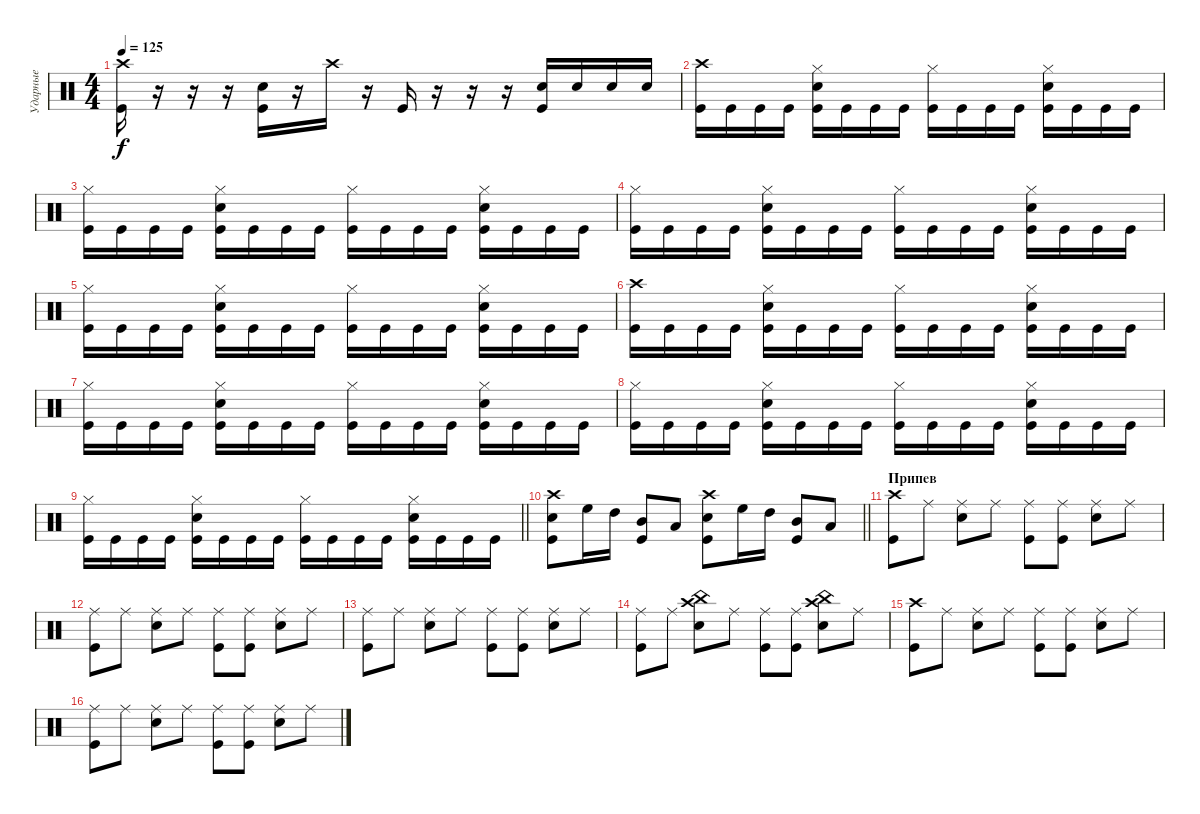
\track ("Ударные" "Ударные") {instrument percussion}
\staff {score}
\articulation defaults
\ts (4 4)
\tempo 125
\clef neutral
\ks c
("Crash high (hit)" "Kick (hit)").16{dy f} r.16 r.16 r.16 ("Snare (hit) 2" "Kick (hit)").16 r.16 "Crash high (hit)".16 r.16 "Kick (hit)".16 r.16 r.16 r.16 ("Snare (hit) 2" "Kick (hit)").16 "Snare (hit) 2".16 "Snare (hit) 2".16 "Snare (hit) 2".16 |
("Crash high (hit)" "Kick (hit)").16 "Kick (hit)".16 "Kick (hit)".16 "Kick (hit)".16 ("Hi-Hat (closed)" "Snare (hit) 2" "Kick (hit)").16 "Kick (hit)".16 "Kick (hit)".16 "Kick (hit)".16 ("Hi-Hat (closed)" "Kick (hit)").16 "Kick (hit)".16 "Kick (hit)".16 "Kick (hit)".16 ("Hi-Hat (closed)" "Snare (hit) 2" "Kick (hit)").16 "Kick (hit)".16 "Kick (hit)".16 "Kick (hit)".16 |
("Hi-Hat (closed)" "Kick (hit)").16 "Kick (hit)".16 "Kick (hit)".16 "Kick (hit)".16 ("Hi-Hat (closed)" "Snare (hit) 2" "Kick (hit)").16 "Kick (hit)".16 "Kick (hit)".16 "Kick (hit)".16 ("Hi-Hat (closed)" "Kick (hit)").16 "Kick (hit)".16 "Kick (hit)".16 "Kick (hit)".16 ("Hi-Hat (closed)" "Snare (hit) 2" "Kick (hit)").16 "Kick (hit)".16 "Kick (hit)".16 "Kick (hit)".16 |
("Hi-Hat (closed)" "Kick (hit)").16 "Kick (hit)".16 "Kick (hit)".16 "Kick (hit)".16 ("Hi-Hat (closed)" "Snare (hit) 2" "Kick (hit)").16 "Kick (hit)".16 "Kick (hit)".16 "Kick (hit)".16 ("Hi-Hat (closed)" "Kick (hit)").16 "Kick (hit)".16 "Kick (hit)".16 "Kick (hit)".16 ("Hi-Hat (closed)" "Snare (hit) 2" "Kick (hit)").16 "Kick (hit)".16 "Kick (hit)".16 "Kick (hit)".16 |
("Hi-Hat (closed)" "Kick (hit)").16 "Kick (hit)".16 "Kick (hit)".16 "Kick (hit)".16 ("Hi-Hat (closed)" "Snare (hit) 2" "Kick (hit)").16 "Kick (hit)".16 "Kick (hit)".16 "Kick (hit)".16 ("Hi-Hat (closed)" "Kick (hit)").16 "Kick (hit)".16 "Kick (hit)".16 "Kick (hit)".16 ("Hi-Hat (closed)" "Snare (hit) 2" "Kick (hit)").16 "Kick (hit)".16 "Kick (hit)".16 "Kick (hit)".16 |
("Crash high (hit)" "Kick (hit)").16 "Kick (hit)".16 "Kick (hit)".16 "Kick (hit)".16 ("Hi-Hat (closed)" "Snare (hit) 2" "Kick (hit)").16 "Kick (hit)".16 "Kick (hit)".16 "Kick (hit)".16 ("Hi-Hat (closed)" "Kick (hit)").16 "Kick (hit)".16 "Kick (hit)".16 "Kick (hit)".16 ("Hi-Hat (closed)" "Snare (hit) 2" "Kick (hit)").16 "Kick (hit)".16 "Kick (hit)".16 "Kick (hit)".16 |
("Hi-Hat (closed)" "Kick (hit)").16 "Kick (hit)".16 "Kick (hit)".16 "Kick (hit)".16 ("Hi-Hat (closed)" "Snare (hit) 2" "Kick (hit)").16 "Kick (hit)".16 "Kick (hit)".16 "Kick (hit)".16 ("Hi-Hat (closed)" "Kick (hit)").16 "Kick (hit)".16 "Kick (hit)".16 "Kick (hit)".16 ("Hi-Hat (closed)" "Snare (hit) 2" "Kick (hit)").16 "Kick (hit)".16 "Kick (hit)".16 "Kick (hit)".16 |
("Hi-Hat (closed)" "Kick (hit)").16 "Kick (hit)".16 "Kick (hit)".16 "Kick (hit)".16 ("Hi-Hat (closed)" "Snare (hit) 2" "Kick (hit)").16 "Kick (hit)".16 "Kick (hit)".16 "Kick (hit)".16 ("Hi-Hat (closed)" "Kick (hit)").16 "Kick (hit)".16 "Kick (hit)".16 "Kick (hit)".16 ("Hi-Hat (closed)" "Snare (hit) 2" "Kick (hit)").16 "Kick (hit)".16 "Kick (hit)".16 "Kick (hit)".16 |
\barLineRight lightlight
("Hi-Hat (closed)" "Kick (hit)").16 "Kick (hit)".16 "Kick (hit)".16 "Kick (hit)".16 ("Hi-Hat (closed)" "Snare (hit) 2" "Kick (hit)").16 "Kick (hit)".16 "Kick (hit)".16 "Kick (hit)".16 ("Hi-Hat (closed)" "Kick (hit)").16 "Kick (hit)".16 "Kick (hit)".16 "Kick (hit)".16 ("Hi-Hat (closed)" "Snare (hit) 2" "Kick (hit)").16 "Kick (hit)".16 "Kick (hit)".16 "Kick (hit)".16 |
\section ("" "")
\barLineRight lightlight
("Crash high (hit)" "Snare (hit) 2" "Kick (hit)").8 "High Floor Tom (hit)".16 "High Tom (hit)".16 ("Mid Tom (hit)" "Kick (hit)").8 "Low Tom (hit)".8 ("Crash high (hit)" "Snare (hit) 2" "Kick (hit)").8 "High Floor Tom (hit)".16 "High Tom (hit)".16 ("Mid Tom (hit)" "Kick (hit)").8 "Low Tom (hit)".8 |
\section ("" "Припев")
("Crash high (hit)" "Kick (hit)").8 "Ride (middle)".8 ("Ride (middle)" "Snare (hit) 2").8 "Ride (middle)".8 ("Ride (middle)" "Kick (hit)").8 ("Ride (middle)" "Kick (hit)").8 ("Ride (middle)" "Snare (hit) 2").8 "Ride (middle)".8 |
("Ride (middle)" "Kick (hit)").8 "Ride (middle)".8 ("Ride (middle)" "Snare (hit) 2").8 "Ride (middle)".8 ("Ride (middle)" "Kick (hit)").8 ("Ride (middle)" "Kick (hit)").8 ("Ride (middle)" "Snare (hit) 2").8 "Ride (middle)".8 |
("Ride (middle)" "Kick (hit)").8 "Ride (middle)".8 ("Ride (middle)" "Snare (hit) 2").8 "Ride (middle)".8 ("Ride (middle)" "Kick (hit)").8 ("Ride (middle)" "Kick (hit)").8 ("Ride (middle)" "Snare (hit) 2").8 "Ride (middle)".8 |
("Ride (middle)" "Kick (hit)").8 "Ride (middle)".8 ("Crash high (hit)" "China (hit)" "Snare (hit) 2").8 "Ride (middle)".8 ("Ride (middle)" "Kick (hit)").8 ("Ride (middle)" "Kick (hit)").8 ("Crash high (hit)" "China (hit)" "Snare (hit) 2").8 "Ride (middle)".8 |
("Crash high (hit)" "Kick (hit)").8 "Ride (middle)".8 ("Ride (middle)" "Snare (hit) 2").8 "Ride (middle)".8 ("Ride (middle)" "Kick (hit)").8 ("Ride (middle)" "Kick (hit)").8 ("Ride (middle)" "Snare (hit) 2").8 "Ride (middle)".8 |
("Ride (middle)" "Kick (hit)").8 "Ride (middle)".8 ("Ride (middle)" "Snare (hit) 2").8 "Ride (middle)".8 ("Ride (middle)" "Kick (hit)").8 ("Ride (middle)" "Kick (hit)").8 ("Ride (middle)" "Snare (hit) 2").8 "Ride (middle)".8
